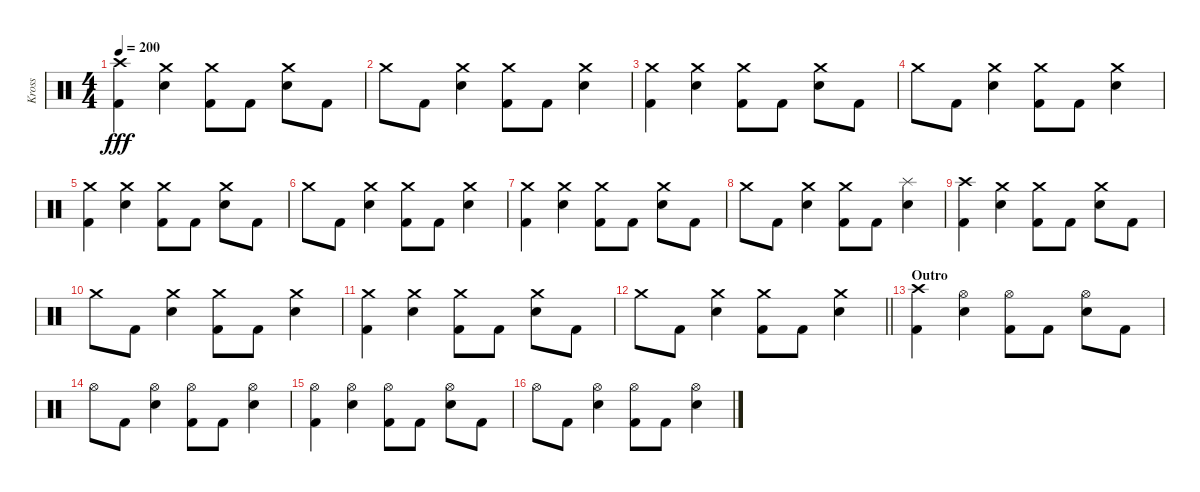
\track ("Kross" "Kross") {instrument percussion}
\staff {score}
\articulation defaults
\ts (4 4)
\tempo 200
\clef neutral
\ks c
("Crash high (hit)" "Kick (hit) 2").4{dy fff} ("Crash medium (hit)" "Electric Snare (hit)").4 ("Crash medium (hit)" "Kick (hit) 2").8 "Kick (hit) 2".8 ("Crash medium (hit)" "Electric Snare (hit)").8 "Kick (hit) 2".8 |
"Crash medium (hit)".8 "Kick (hit) 2".8 ("Crash medium (hit)" "Electric Snare (hit)").4 ("Crash medium (hit)" "Kick (hit) 2").8 "Kick (hit) 2".8 ("Crash medium (hit)" "Electric Snare (hit)").4 |
("Crash medium (hit)" "Kick (hit) 2").4 ("Crash medium (hit)" "Electric Snare (hit)").4 ("Crash medium (hit)" "Kick (hit) 2").8 "Kick (hit) 2".8 ("Crash medium (hit)" "Electric Snare (hit)").8 "Kick (hit) 2".8 |
"Crash medium (hit)".8 "Kick (hit) 2".8 ("Crash medium (hit)" "Electric Snare (hit)").4 ("Crash medium (hit)" "Kick (hit) 2").8 "Kick (hit) 2".8 ("Crash medium (hit)" "Electric Snare (hit)").4 |
("Crash medium (hit)" "Kick (hit) 2").4 ("Crash medium (hit)" "Electric Snare (hit)").4 ("Crash medium (hit)" "Kick (hit) 2").8 "Kick (hit) 2".8 ("Crash medium (hit)" "Electric Snare (hit)").8 "Kick (hit) 2".8 |
"Crash medium (hit)".8 "Kick (hit) 2".8 ("Crash medium (hit)" "Electric Snare (hit)").4 ("Crash medium (hit)" "Kick (hit) 2").8 "Kick (hit) 2".8 ("Crash medium (hit)" "Electric Snare (hit)").4 |
("Crash medium (hit)" "Kick (hit) 2").4 ("Crash medium (hit)" "Electric Snare (hit)").4 ("Crash medium (hit)" "Kick (hit) 2").8 "Kick (hit) 2".8 ("Crash medium (hit)" "Electric Snare (hit)").8 "Kick (hit) 2".8 |
"Crash medium (hit)".8 "Kick (hit) 2".8 ("Crash medium (hit)" "Electric Snare (hit)").4 ("Crash medium (hit)" "Kick (hit) 2").8 "Kick (hit) 2".8 ("Splash (hit)" "Electric Snare (hit)").4 |
("Crash high (hit)" "Kick (hit) 2").4 ("Crash medium (hit)" "Electric Snare (hit)").4 ("Crash medium (hit)" "Kick (hit) 2").8 "Kick (hit) 2".8 ("Crash medium (hit)" "Electric Snare (hit)").8 "Kick (hit) 2".8 |
"Crash medium (hit)".8 "Kick (hit) 2".8 ("Crash medium (hit)" "Electric Snare (hit)").4 ("Crash medium (hit)" "Kick (hit) 2").8 "Kick (hit) 2".8 ("Crash medium (hit)" "Electric Snare (hit)").4 |
("Crash medium (hit)" "Kick (hit) 2").4 ("Crash medium (hit)" "Electric Snare (hit)").4 ("Crash medium (hit)" "Kick (hit) 2").8 "Kick (hit) 2".8 ("Crash medium (hit)" "Electric Snare (hit)").8 "Kick (hit) 2".8 |
\barLineRight lightlight "Crash medium (hit)".8 "Kick (hit) 2".8
("Crash medium (hit)" "Electric Snare (hit)").4 ("Crash medium (hit)" "Kick (hit) 2").8 "Kick (hit) 2".8 ("Crash medium (hit)" "Electric Snare (hit)").4 |
\section ("" "Outro")
("Crash high (hit)" "Kick (hit) 2").4 ("Hi-Hat (open)" "Electric Snare (hit)").4 ("Hi-Hat (open)" "Kick (hit) 2").8 "Kick (hit) 2".8 ("Hi-Hat (open)" "Electric Snare (hit)").8 "Kick (hit) 2".8 |
"Hi-Hat (open)".8 "Kick (hit) 2".8 ("Hi-Hat (open)" "Electric Snare (hit)").4 ("Hi-Hat (open)" "Kick (hit) 2").8 "Kick (hit) 2".8 ("Hi-Hat (open)" "Electric Snare (hit)").4 |
("Hi-Hat (open)" "Kick (hit) 2").4 ("Hi-Hat (open)" "Electric Snare (hit)").4 ("Hi-Hat (open)" "Kick (hit) 2").8 "Kick (hit) 2".8 ("Hi-Hat (open)" "Electric Snare (hit)").8 "Kick (hit) 2".8 |
"Hi-Hat (open)".8 "Kick (hit) 2".8 ("Hi-Hat (open)" "Electric Snare (hit)").4 ("Hi-Hat (open)" "Kick (hit) 2").8 "Kick (hit) 2".8 ("Hi-Hat (open)" "Electric Snare (hit)").4
